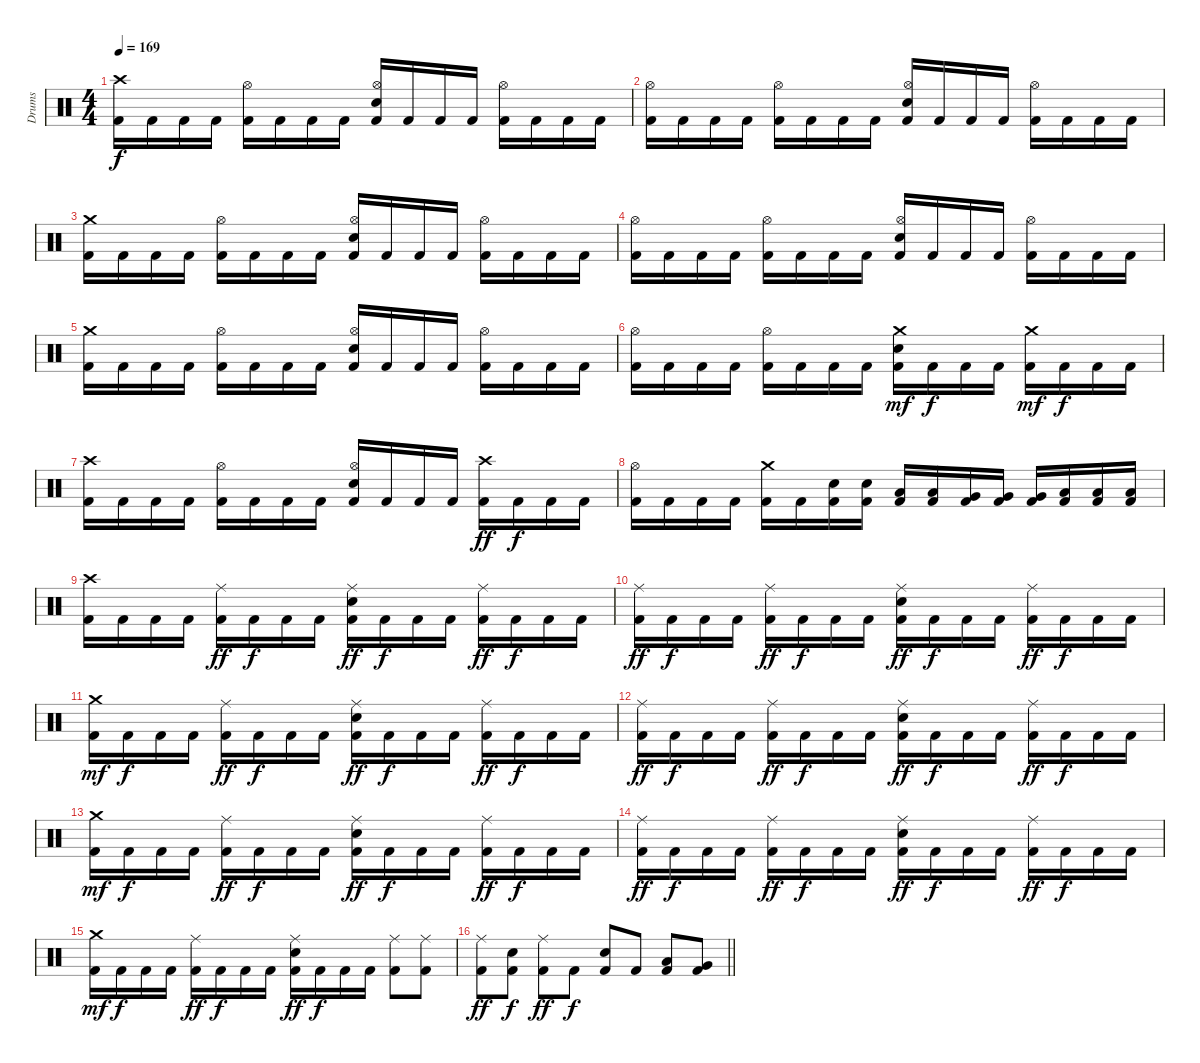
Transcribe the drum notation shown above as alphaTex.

\track ("Drums" "Drums") {instrument percussion}
\staff {score}
\articulation defaults
\ts (4 4)
\tempo 169
\clef neutral
\ks c
("Crash high (hit)" "Kick (hit) 2").16{dy f} "Kick (hit) 2".16 "Kick (hit) 2".16 "Kick (hit) 2".16 ("Hi-Hat (open)" "Kick (hit) 2").16 "Kick (hit) 2".16 "Kick (hit) 2".16 "Kick (hit) 2".16 ("Hi-Hat (open)" "Snare (hit) 2" "Kick (hit) 2").16 "Kick (hit) 2".16 "Kick (hit) 2".16 "Kick (hit) 2".16 ("Hi-Hat (open)" "Kick (hit) 2").16 "Kick (hit) 2".16 "Kick (hit) 2".16 "Kick (hit) 2".16 |
("Hi-Hat (open)" "Kick (hit) 2").16 "Kick (hit) 2".16 "Kick (hit) 2".16 "Kick (hit) 2".16 ("Hi-Hat (open)" "Kick (hit) 2").16 "Kick (hit) 2".16 "Kick (hit) 2".16 "Kick (hit) 2".16 ("Hi-Hat (open)" "Snare (hit) 2" "Kick (hit) 2").16 "Kick (hit) 2".16 "Kick (hit) 2".16 "Kick (hit) 2".16 ("Hi-Hat (open)" "Kick (hit) 2").16 "Kick (hit) 2".16 "Kick (hit) 2".16 "Kick (hit) 2".16 |
("Crash medium (hit)" "Kick (hit) 2").16 "Kick (hit) 2".16 "Kick (hit) 2".16 "Kick (hit) 2".16 ("Hi-Hat (open)" "Kick (hit) 2").16 "Kick (hit) 2".16 "Kick (hit) 2".16 "Kick (hit) 2".16 ("Hi-Hat (open)" "Snare (hit) 2" "Kick (hit) 2").16 "Kick (hit) 2".16 "Kick (hit) 2".16 "Kick (hit) 2".16 ("Hi-Hat (open)" "Kick (hit) 2").16 "Kick (hit) 2".16 "Kick (hit) 2".16 "Kick (hit) 2".16 |
("Hi-Hat (open)" "Kick (hit) 2").16 "Kick (hit) 2".16 "Kick (hit) 2".16 "Kick (hit) 2".16 ("Hi-Hat (open)" "Kick (hit) 2").16 "Kick (hit) 2".16 "Kick (hit) 2".16 "Kick (hit) 2".16 ("Hi-Hat (open)" "Snare (hit) 2" "Kick (hit) 2").16 "Kick (hit) 2".16 "Kick (hit) 2".16 "Kick (hit) 2".16 ("Hi-Hat (open)" "Kick (hit) 2").16 "Kick (hit) 2".16 "Kick (hit) 2".16 "Kick (hit) 2".16 |
("Crash medium (hit)" "Kick (hit) 2").16 "Kick (hit) 2".16 "Kick (hit) 2".16 "Kick (hit) 2".16 ("Hi-Hat (open)" "Kick (hit) 2").16 "Kick (hit) 2".16 "Kick (hit) 2".16 "Kick (hit) 2".16 ("Hi-Hat (open)" "Snare (hit) 2" "Kick (hit) 2").16 "Kick (hit) 2".16 "Kick (hit) 2".16 "Kick (hit) 2".16 ("Hi-Hat (open)" "Kick (hit) 2").16 "Kick (hit) 2".16 "Kick (hit) 2".16 "Kick (hit) 2".16 |
("Hi-Hat (open)" "Kick (hit) 2").16 "Kick (hit) 2".16 "Kick (hit) 2".16 "Kick (hit) 2".16 ("Hi-Hat (open)" "Kick (hit) 2").16 "Kick (hit) 2".16 "Kick (hit) 2".16 "Kick (hit) 2".16 ("Crash medium (hit)" "Snare (hit) 2" "Kick (hit) 2").16{dy mf} "Kick (hit) 2".16{dy f} "Kick (hit) 2".16 "Kick (hit) 2".16 ("Crash medium (hit)" "Kick (hit) 2").16{dy mf} "Kick (hit) 2".16{dy f} "Kick (hit) 2".16 "Kick (hit) 2".16 |
("Crash high (hit)" "Kick (hit) 2").16 "Kick (hit) 2".16 "Kick (hit) 2".16 "Kick (hit) 2".16 ("Hi-Hat (open)" "Kick (hit) 2").16 "Kick (hit) 2".16 "Kick (hit) 2".16 "Kick (hit) 2".16 ("Hi-Hat (open)" "Snare (hit) 2" "Kick (hit) 2").16 "Kick (hit) 2".16 "Kick (hit) 2".16 "Kick (hit) 2".16 ("Crash high (hit)" "Kick (hit) 2").16{dy ff} "Kick (hit) 2".16{dy f} "Kick (hit) 2".16 "Kick (hit) 2".16 |
("Hi-Hat (open)" "Kick (hit) 2").16 "Kick (hit) 2".16 "Kick (hit) 2".16 "Kick (hit) 2".16 ("Crash medium (hit)" "Kick (hit) 2").16 "Kick (hit) 2".16 ("Snare (hit) 2" "Kick (hit) 2").16 ("Snare (hit) 2" "Kick (hit) 2").16 ("Low Tom (hit)" "Kick (hit) 2").16 ("Low Tom (hit)" "Kick (hit) 2").16 ("Very Low Tom (hit)" "Kick (hit) 2").16 ("Very Low Tom (hit)" "Kick (hit) 2").16 ("Very Low Tom (hit)" "Kick (hit) 2").16 ("Low Floor Tom (hit)" "Kick (hit) 2").16 ("Low Floor Tom (hit)" "Kick (hit) 2").16 ("Low Floor Tom (hit)" "Kick (hit) 2").16 |
("Crash high (hit)" "Kick (hit) 2").16 "Kick (hit) 2".16 "Kick (hit) 2".16 "Kick (hit) 2".16 ("Ride (middle)" "Kick (hit) 2").16{dy ff} "Kick (hit) 2".16{dy f} "Kick (hit) 2".16 "Kick (hit) 2".16 ("Ride (middle)" "Snare (hit) 2" "Kick (hit) 2").16{dy ff} "Kick (hit) 2".16{dy f} "Kick (hit) 2".16 "Kick (hit) 2".16 ("Ride (middle)" "Kick (hit) 2").16{dy ff} "Kick (hit) 2".16{dy f} "Kick (hit) 2".16 "Kick (hit) 2".16 |
("Ride (middle)" "Kick (hit) 2").16{dy ff} "Kick (hit) 2".16{dy f} "Kick (hit) 2".16 "Kick (hit) 2".16 ("Ride (middle)" "Kick (hit) 2").16{dy ff} "Kick (hit) 2".16{dy f} "Kick (hit) 2".16 "Kick (hit) 2".16 ("Ride (middle)" "Snare (hit) 2" "Kick (hit) 2").16{dy ff} "Kick (hit) 2".16{dy f} "Kick (hit) 2".16 "Kick (hit) 2".16 ("Ride (middle)" "Kick (hit) 2").16{dy ff} "Kick (hit) 2".16{dy f} "Kick (hit) 2".16 "Kick (hit) 2".16 |
("Crash medium (hit)" "Kick (hit) 2").16{dy mf} "Kick (hit) 2".16{dy f} "Kick (hit) 2".16 "Kick (hit) 2".16 ("Ride (middle)" "Kick (hit) 2").16{dy ff} "Kick (hit) 2".16{dy f} "Kick (hit) 2".16 "Kick (hit) 2".16 ("Ride (middle)" "Snare (hit) 2" "Kick (hit) 2").16{dy ff} "Kick (hit) 2".16{dy f} "Kick (hit) 2".16 "Kick (hit) 2".16 ("Ride (middle)" "Kick (hit) 2").16{dy ff} "Kick (hit) 2".16{dy f} "Kick (hit) 2".16 "Kick (hit) 2".16 |
("Ride (middle)" "Kick (hit) 2").16{dy ff} "Kick (hit) 2".16{dy f} "Kick (hit) 2".16 "Kick (hit) 2".16 ("Ride (middle)" "Kick (hit) 2").16{dy ff} "Kick (hit) 2".16{dy f} "Kick (hit) 2".16 "Kick (hit) 2".16 ("Ride (middle)" "Snare (hit) 2" "Kick (hit) 2").16{dy ff} "Kick (hit) 2".16{dy f} "Kick (hit) 2".16 "Kick (hit) 2".16 ("Ride (middle)" "Kick (hit) 2").16{dy ff} "Kick (hit) 2".16{dy f} "Kick (hit) 2".16 "Kick (hit) 2".16 |
("Crash medium (hit)" "Kick (hit) 2").16{dy mf} "Kick (hit) 2".16{dy f} "Kick (hit) 2".16 "Kick (hit) 2".16 ("Ride (middle)" "Kick (hit) 2").16{dy ff} "Kick (hit) 2".16{dy f} "Kick (hit) 2".16 "Kick (hit) 2".16 ("Ride (middle)" "Snare (hit) 2" "Kick (hit) 2").16{dy ff} "Kick (hit) 2".16{dy f} "Kick (hit) 2".16 "Kick (hit) 2".16 ("Ride (middle)" "Kick (hit) 2").16{dy ff} "Kick (hit) 2".16{dy f} "Kick (hit) 2".16 "Kick (hit) 2".16 |
("Ride (middle)" "Kick (hit) 2").16{dy ff} "Kick (hit) 2".16{dy f} "Kick (hit) 2".16 "Kick (hit) 2".16 ("Ride (middle)" "Kick (hit) 2").16{dy ff} "Kick (hit) 2".16{dy f} "Kick (hit) 2".16 "Kick (hit) 2".16 ("Ride (middle)" "Snare (hit) 2" "Kick (hit) 2").16{dy ff} "Kick (hit) 2".16{dy f} "Kick (hit) 2".16 "Kick (hit) 2".16 ("Ride (middle)" "Kick (hit) 2").16{dy ff} "Kick (hit) 2".16{dy f} "Kick (hit) 2".16 "Kick (hit) 2".16 |
("Crash medium (hit)" "Kick (hit) 2").16{dy mf} "Kick (hit) 2".16{dy f} "Kick (hit) 2".16 "Kick (hit) 2".16 ("Ride (middle)" "Kick (hit) 2").16{dy ff} "Kick (hit) 2".16{dy f} "Kick (hit) 2".16 "Kick (hit) 2".16 ("Ride (middle)" "Snare (hit) 2" "Kick (hit) 2").16{dy ff} "Kick (hit) 2".16{dy f} "Kick (hit) 2".16 "Kick (hit) 2".16 ("Ride (middle)" "Kick (hit) 2").8 ("Ride (middle)" "Kick (hit) 2").8 |
\barLineRight lightlight
("Ride (middle)" "Kick (hit) 2").8{dy ff} ("Snare (hit) 2" "Kick (hit) 2").8{dy f} ("Ride (middle)" "Kick (hit) 2").8{dy ff} "Kick (hit) 2".8{dy f} ("Snare (hit) 2" "Kick (hit) 2").8 "Kick (hit) 2".8 ("Low Tom (hit)" "Kick (hit) 2").8 ("Very Low Tom (hit)" "Kick (hit) 2").8
